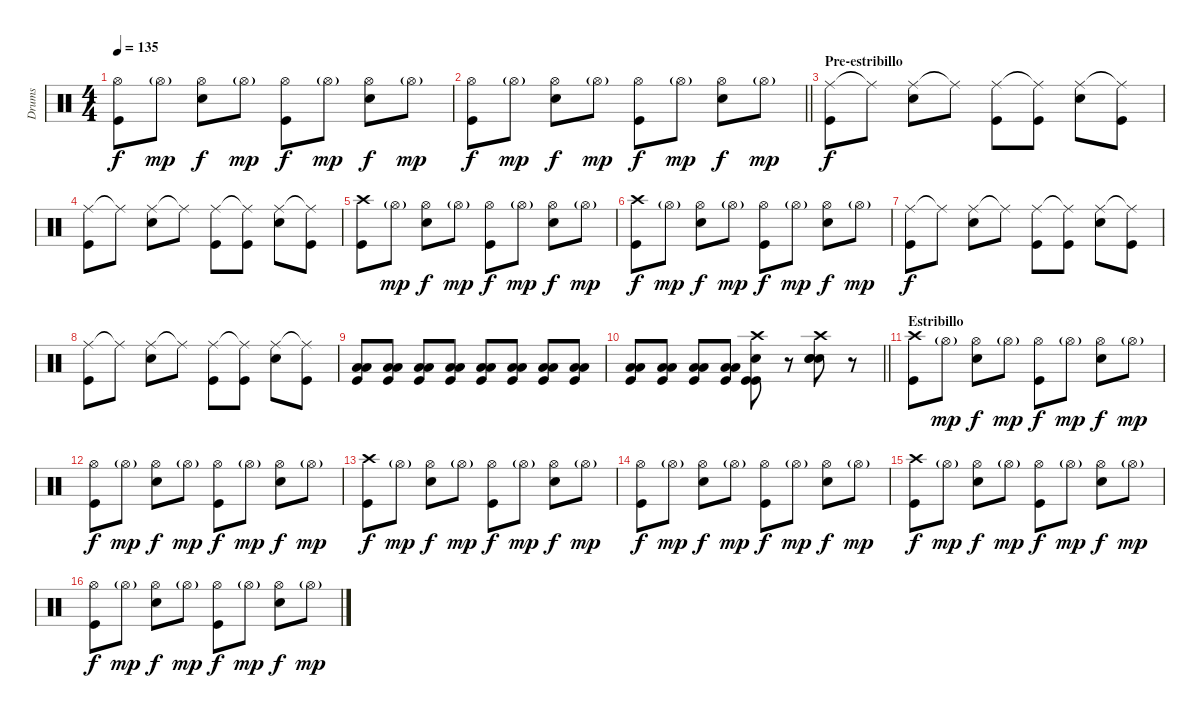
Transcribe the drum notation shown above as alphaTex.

\track ("Drums" "Drums") {instrument percussion}
\staff {score}
\articulation defaults
\ts (4 4)
\tempo 135
\clef neutral
\ks c
("Hi-Hat (open)" "Kick (hit)").8{dy f} "Hi-Hat (open)"{g}.8{dy mp} ("Hi-Hat (open)" "Snare (hit) 2").8{dy f} "Hi-Hat (open)"{g}.8{dy mp} ("Hi-Hat (open)" "Kick (hit)").8{dy f} "Hi-Hat (open)"{g}.8{dy mp} ("Hi-Hat (open)" "Snare (hit) 2").8{dy f} "Hi-Hat (open)"{g}.8{dy mp} |
\barLineRight lightlight
("Hi-Hat (open)" "Kick (hit)").8{dy f} "Hi-Hat (open)"{g}.8{dy mp} ("Hi-Hat (open)" "Snare (hit) 2").8{dy f} "Hi-Hat (open)"{g}.8{dy mp} ("Hi-Hat (open)" "Kick (hit)").8{dy f} "Hi-Hat (open)"{g}.8{dy mp} ("Hi-Hat (open)" "Snare (hit) 2").8{dy f} "Hi-Hat (open)"{g}.8{dy mp} |
\section ("" "Pre-estribillo")
("Ride (middle)" "Kick (hit)").8{dy f} "Ride (middle)"{t}.8 ("Ride (middle)" "Snare (hit) 2").8 "Ride (middle)"{t}.8 ("Ride (middle)" "Kick (hit)").8 ("Ride (middle)"{t} "Kick (hit)").8 ("Ride (middle)" "Snare (hit) 2").8 ("Ride (middle)"{t} "Kick (hit)").8 |
("Ride (middle)" "Kick (hit)").8 "Ride (middle)"{t}.8 ("Ride (middle)" "Snare (hit) 2").8 "Ride (middle)"{t}.8 ("Ride (middle)" "Kick (hit)").8 ("Ride (middle)"{t} "Kick (hit)").8 ("Ride (middle)" "Snare (hit) 2").8 ("Ride (middle)"{t} "Kick (hit)").8 |
("Crash high (hit)" "Kick (hit)").8 "Hi-Hat (open)"{g}.8{dy mp} ("Hi-Hat (open)" "Snare (hit) 2").8{dy f} "Hi-Hat (open)"{g}.8{dy mp} ("Hi-Hat (open)" "Kick (hit)").8{dy f} "Hi-Hat (open)"{g}.8{dy mp} ("Hi-Hat (open)" "Snare (hit) 2").8{dy f} "Hi-Hat (open)"{g}.8{dy mp} |
("Crash high (hit)" "Kick (hit)").8{dy f} "Hi-Hat (open)"{g}.8{dy mp} ("Hi-Hat (open)" "Snare (hit) 2").8{dy f} "Hi-Hat (open)"{g}.8{dy mp} ("Hi-Hat (open)" "Kick (hit)").8{dy f} "Hi-Hat (open)"{g}.8{dy mp} ("Hi-Hat (open)" "Snare (hit) 2").8{dy f} "Hi-Hat (open)"{g}.8{dy mp} |
("Ride (middle)" "Kick (hit)").8{dy f} "Ride (middle)"{t}.8 ("Ride (middle)" "Snare (hit) 2").8 "Ride (middle)"{t}.8 ("Ride (middle)" "Kick (hit)").8 ("Ride (middle)"{t} "Kick (hit)").8 ("Ride (middle)" "Snare (hit) 2").8 ("Ride (middle)"{t} "Kick (hit)").8 |
("Ride (middle)" "Kick (hit)").8 "Ride (middle)"{t}.8 ("Ride (middle)" "Snare (hit) 2").8 "Ride (middle)"{t}.8 ("Ride (middle)" "Kick (hit)").8 ("Ride (middle)"{t} "Kick (hit)").8 ("Ride (middle)" "Snare (hit) 2").8 ("Ride (middle)"{t} "Kick (hit)").8 |
("Low Tom (hit)" "Low Tom (hit)" "Kick (hit)").8 ("Low Tom (hit)" "Low Tom (hit)" "Kick (hit)").8 ("Low Tom (hit)" "Low Tom (hit)" "Kick (hit)").8 ("Low Tom (hit)" "Low Tom (hit)" "Kick (hit)").8 ("Low Tom (hit)" "Low Tom (hit)" "Kick (hit)").8 ("Low Tom (hit)" "Low Tom (hit)" "Kick (hit)").8 ("Low Tom (hit)" "Low Tom (hit)" "Kick (hit)").8 ("Low Tom (hit)" "Low Tom (hit)" "Kick (hit)").8 |
\barLineRight lightlight
("Low Tom (hit)" "Low Tom (hit)" "Kick (hit)").8 ("Low Tom (hit)" "Low Tom (hit)" "Kick (hit)").8 ("Low Tom (hit)" "Low Tom (hit)" "Kick (hit)").8 ("Low Tom (hit)" "Low Tom (hit)" "Kick (hit)").8 ("Snare (hit) 2" "Crash high (hit)" "Kick (hit)" "Kick (hit)").8 r.8 ("Snare (hit) 2" "Crash high (hit)" "Snare (hit) 2" "Snare (hit) 2").8 r.8 |
\section ("" "Estribillo")
("Crash high (hit)" "Kick (hit)").8 "Hi-Hat (open)"{g}.8{dy mp} ("Hi-Hat (open)" "Snare (hit) 2").8{dy f} "Hi-Hat (open)"{g}.8{dy mp} ("Hi-Hat (open)" "Kick (hit)").8{dy f} "Hi-Hat (open)"{g}.8{dy mp} ("Hi-Hat (open)" "Snare (hit) 2").8{dy f} "Hi-Hat (open)"{g}.8{dy mp} |
("Hi-Hat (open)" "Kick (hit)").8{dy f} "Hi-Hat (open)"{g}.8{dy mp} ("Hi-Hat (open)" "Snare (hit) 2").8{dy f} "Hi-Hat (open)"{g}.8{dy mp} ("Hi-Hat (open)" "Kick (hit)").8{dy f} "Hi-Hat (open)"{g}.8{dy mp} ("Hi-Hat (open)" "Snare (hit) 2").8{dy f} "Hi-Hat (open)"{g}.8{dy mp} |
("Crash high (hit)" "Kick (hit)").8{dy f} "Hi-Hat (open)"{g}.8{dy mp} ("Hi-Hat (open)" "Snare (hit) 2").8{dy f} "Hi-Hat (open)"{g}.8{dy mp} ("Hi-Hat (open)" "Kick (hit)").8{dy f} "Hi-Hat (open)"{g}.8{dy mp} ("Hi-Hat (open)" "Snare (hit) 2").8{dy f} "Hi-Hat (open)"{g}.8{dy mp} |
("Hi-Hat (open)" "Kick (hit)").8{dy f} "Hi-Hat (open)"{g}.8{dy mp} ("Hi-Hat (open)" "Snare (hit) 2").8{dy f} "Hi-Hat (open)"{g}.8{dy mp} ("Hi-Hat (open)" "Kick (hit)").8{dy f} "Hi-Hat (open)"{g}.8{dy mp} ("Hi-Hat (open)" "Snare (hit) 2").8{dy f} "Hi-Hat (open)"{g}.8{dy mp} |
("Crash high (hit)" "Kick (hit)").8{dy f} "Hi-Hat (open)"{g}.8{dy mp} ("Hi-Hat (open)" "Snare (hit) 2").8{dy f} "Hi-Hat (open)"{g}.8{dy mp} ("Hi-Hat (open)" "Kick (hit)").8{dy f} "Hi-Hat (open)"{g}.8{dy mp} ("Hi-Hat (open)" "Snare (hit) 2").8{dy f} "Hi-Hat (open)"{g}.8{dy mp} |
("Hi-Hat (open)" "Kick (hit)").8{dy f} "Hi-Hat (open)"{g}.8{dy mp} ("Hi-Hat (open)" "Snare (hit) 2").8{dy f} "Hi-Hat (open)"{g}.8{dy mp} ("Hi-Hat (open)" "Kick (hit)").8{dy f} "Hi-Hat (open)"{g}.8{dy mp} ("Hi-Hat (open)" "Snare (hit) 2").8{dy f} "Hi-Hat (open)"{g}.8{dy mp}
